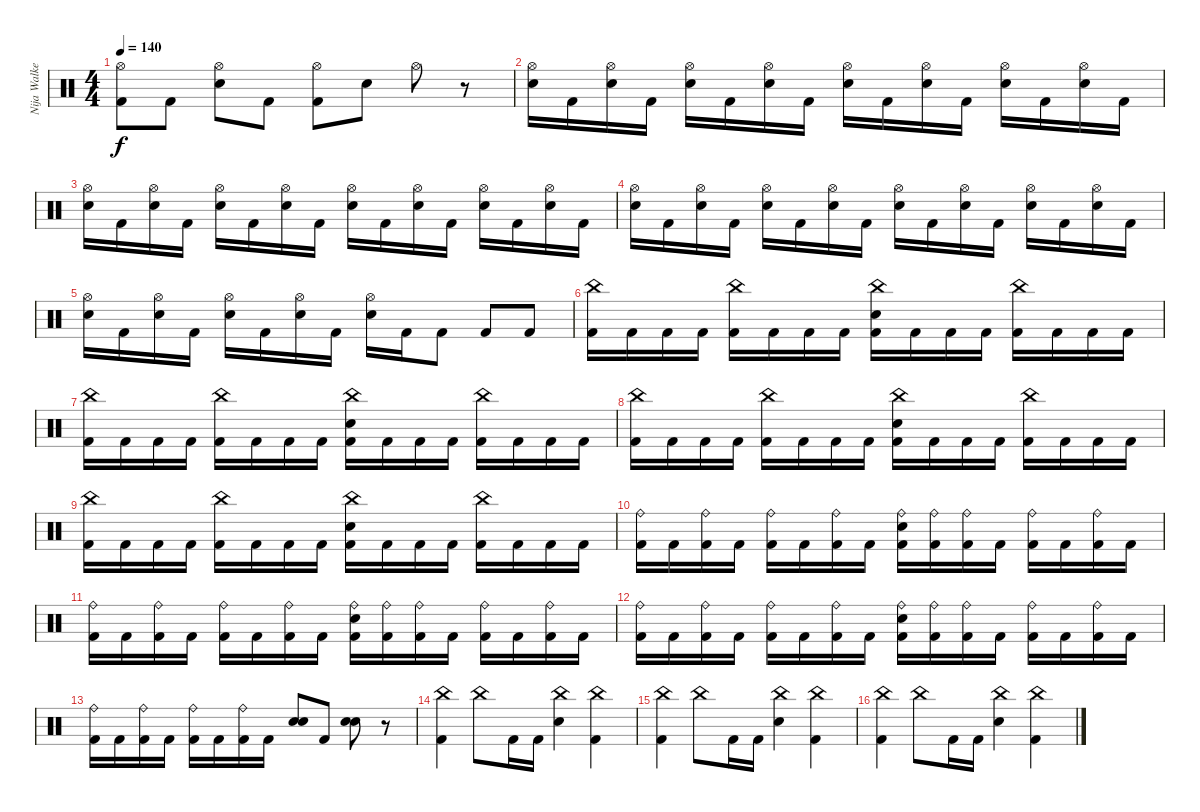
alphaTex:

\track ("Nija Walker" "Nija Walke") {instrument percussion bank 151}
\staff {score}
\articulation defaults
\ts (4 4)
\tempo 140
\clef neutral
\ks c
("Hi-Hat (open)" "Kick (hit) 2").8{dy f} "Kick (hit) 2".8 ("Hi-Hat (open)" "Electric Snare (hit)").8 "Kick (hit) 2".8 ("Hi-Hat (open)" "Kick (hit) 2").8 "Electric Snare (hit)".8 "Hi-Hat (open)".8 r.8 |
("Hi-Hat (open)" "Electric Snare (hit)").16 "Kick (hit) 2".16 ("Hi-Hat (open)" "Electric Snare (hit)").16 "Kick (hit) 2".16 ("Hi-Hat (open)" "Electric Snare (hit)").16 "Kick (hit) 2".16 ("Hi-Hat (open)" "Electric Snare (hit)").16 "Kick (hit) 2".16 ("Hi-Hat (open)" "Electric Snare (hit)").16 "Kick (hit) 2".16 ("Hi-Hat (open)" "Electric Snare (hit)").16 "Kick (hit) 2".16 ("Hi-Hat (open)" "Electric Snare (hit)").16 "Kick (hit) 2".16 ("Hi-Hat (open)" "Electric Snare (hit)").16 "Kick (hit) 2".16 |
("Hi-Hat (open)" "Electric Snare (hit)").16 "Kick (hit) 2".16 ("Hi-Hat (open)" "Electric Snare (hit)").16 "Kick (hit) 2".16 ("Hi-Hat (open)" "Electric Snare (hit)").16 "Kick (hit) 2".16 ("Hi-Hat (open)" "Electric Snare (hit)").16 "Kick (hit) 2".16 ("Hi-Hat (open)" "Electric Snare (hit)").16 "Kick (hit) 2".16 ("Hi-Hat (open)" "Electric Snare (hit)").16 "Kick (hit) 2".16 ("Hi-Hat (open)" "Electric Snare (hit)").16 "Kick (hit) 2".16 ("Hi-Hat (open)" "Electric Snare (hit)").16 "Kick (hit) 2".16 |
("Hi-Hat (open)" "Electric Snare (hit)").16 "Kick (hit) 2".16 ("Hi-Hat (open)" "Electric Snare (hit)").16 "Kick (hit) 2".16 ("Hi-Hat (open)" "Electric Snare (hit)").16 "Kick (hit) 2".16 ("Hi-Hat (open)" "Electric Snare (hit)").16 "Kick (hit) 2".16 ("Hi-Hat (open)" "Electric Snare (hit)").16 "Kick (hit) 2".16 ("Hi-Hat (open)" "Electric Snare (hit)").16 "Kick (hit) 2".16 ("Hi-Hat (open)" "Electric Snare (hit)").16 "Kick (hit) 2".16 ("Hi-Hat (open)" "Electric Snare (hit)").16 "Kick (hit) 2".16 |
("Hi-Hat (open)" "Electric Snare (hit)").16 "Kick (hit) 2".16 ("Hi-Hat (open)" "Electric Snare (hit)").16 "Kick (hit) 2".16 ("Hi-Hat (open)" "Electric Snare (hit)").16 "Kick (hit) 2".16 ("Hi-Hat (open)" "Electric Snare (hit)").16 "Kick (hit) 2".16 ("Hi-Hat (open)" "Electric Snare (hit)").16 "Kick (hit) 2".16 "Kick (hit) 2".8 "Kick (hit) 2".8 "Kick (hit) 2".8 |
("China (hit)" "Kick (hit) 2").16 "Kick (hit) 2".16 "Kick (hit) 2".16 "Kick (hit) 2".16 ("China (hit)" "Kick (hit) 2").16 "Kick (hit) 2".16 "Kick (hit) 2".16 "Kick (hit) 2".16 ("China (hit)" "Electric Snare (hit)" "Kick (hit) 2").16 "Kick (hit) 2".16 "Kick (hit) 2".16 "Kick (hit) 2".16 ("China (hit)" "Kick (hit) 2").16 "Kick (hit) 2".16 "Kick (hit) 2".16 "Kick (hit) 2".16 |
("China (hit)" "Kick (hit) 2").16 "Kick (hit) 2".16 "Kick (hit) 2".16 "Kick (hit) 2".16 ("China (hit)" "Kick (hit) 2").16 "Kick (hit) 2".16 "Kick (hit) 2".16 "Kick (hit) 2".16 ("China (hit)" "Electric Snare (hit)" "Kick (hit) 2").16 "Kick (hit) 2".16 "Kick (hit) 2".16 "Kick (hit) 2".16 ("China (hit)" "Kick (hit) 2").16 "Kick (hit) 2".16 "Kick (hit) 2".16 "Kick (hit) 2".16 |
("China (hit)" "Kick (hit) 2").16 "Kick (hit) 2".16 "Kick (hit) 2".16 "Kick (hit) 2".16 ("China (hit)" "Kick (hit) 2").16 "Kick (hit) 2".16 "Kick (hit) 2".16 "Kick (hit) 2".16 ("China (hit)" "Electric Snare (hit)" "Kick (hit) 2").16 "Kick (hit) 2".16 "Kick (hit) 2".16 "Kick (hit) 2".16 ("China (hit)" "Kick (hit) 2").16 "Kick (hit) 2".16 "Kick (hit) 2".16 "Kick (hit) 2".16 |
("China (hit)" "Kick (hit) 2").16 "Kick (hit) 2".16 "Kick (hit) 2".16 "Kick (hit) 2".16 ("China (hit)" "Kick (hit) 2").16 "Kick (hit) 2".16 "Kick (hit) 2".16 "Kick (hit) 2".16 ("China (hit)" "Electric Snare (hit)" "Kick (hit) 2").16 "Kick (hit) 2".16 "Kick (hit) 2".16 "Kick (hit) 2".16 ("China (hit)" "Kick (hit) 2").16 "Kick (hit) 2".16 "Kick (hit) 2".16 "Kick (hit) 2".16 |
("Ride (bell)" "Kick (hit) 2").16 "Kick (hit) 2".16 ("Ride (bell)" "Kick (hit) 2").16 "Kick (hit) 2".16 ("Ride (bell)" "Kick (hit) 2").16 "Kick (hit) 2".16 ("Ride (bell)" "Kick (hit) 2").16 "Kick (hit) 2".16 ("Ride (bell)" "Electric Snare (hit)" "Kick (hit) 2").16 ("Ride (bell)" "Kick (hit) 2").16 ("Ride (bell)" "Kick (hit) 2").16 "Kick (hit) 2".16 ("Ride (bell)" "Kick (hit) 2").16 "Kick (hit) 2".16 ("Ride (bell)" "Kick (hit) 2").16 "Kick (hit) 2".16 |
("Ride (bell)" "Kick (hit) 2").16 "Kick (hit) 2".16 ("Ride (bell)" "Kick (hit) 2").16 "Kick (hit) 2".16 ("Ride (bell)" "Kick (hit) 2").16 "Kick (hit) 2".16 ("Ride (bell)" "Kick (hit) 2").16 "Kick (hit) 2".16 ("Ride (bell)" "Electric Snare (hit)" "Kick (hit) 2").16 ("Ride (bell)" "Kick (hit) 2").16 ("Ride (bell)" "Kick (hit) 2").16 "Kick (hit) 2".16 ("Ride (bell)" "Kick (hit) 2").16 "Kick (hit) 2".16 ("Ride (bell)" "Kick (hit) 2").16 "Kick (hit) 2".16 |
("Ride (bell)" "Kick (hit) 2").16 "Kick (hit) 2".16 ("Ride (bell)" "Kick (hit) 2").16 "Kick (hit) 2".16 ("Ride (bell)" "Kick (hit) 2").16 "Kick (hit) 2".16 ("Ride (bell)" "Kick (hit) 2").16 "Kick (hit) 2".16 ("Ride (bell)" "Electric Snare (hit)" "Kick (hit) 2").16 ("Ride (bell)" "Kick (hit) 2").16 ("Ride (bell)" "Kick (hit) 2").16 "Kick (hit) 2".16 ("Ride (bell)" "Kick (hit) 2").16 "Kick (hit) 2".16 ("Ride (bell)" "Kick (hit) 2").16 "Kick (hit) 2".16 |
("Ride (bell)" "Kick (hit) 2").16 "Kick (hit) 2".16 ("Ride (bell)" "Kick (hit) 2").16 "Kick (hit) 2".16 ("Ride (bell)" "Kick (hit) 2").16 "Kick (hit) 2".16 ("Ride (bell)" "Kick (hit) 2").16 "Kick (hit) 2".16 ("Electric Snare (hit)" "Electric Snare (hit)").8 "Kick (hit) 2".8 ("Electric Snare (hit)" "Electric Snare (hit)").8 r.8 |
("China (hit)" "Kick (hit) 2").4 "China (hit)".8 "Kick (hit) 2".16 "Kick (hit) 2".16 ("China (hit)" "Electric Snare (hit)").4 ("China (hit)" "Kick (hit) 2").4 |
("China (hit)" "Kick (hit) 2").4 "China (hit)".8 "Kick (hit) 2".16 "Kick (hit) 2".16 ("China (hit)" "Electric Snare (hit)").4 ("China (hit)" "Kick (hit) 2").4 |
("China (hit)" "Kick (hit) 2").4 "China (hit)".8 "Kick (hit) 2".16 "Kick (hit) 2".16 ("China (hit)" "Electric Snare (hit)").4 ("China (hit)" "Kick (hit) 2").4
